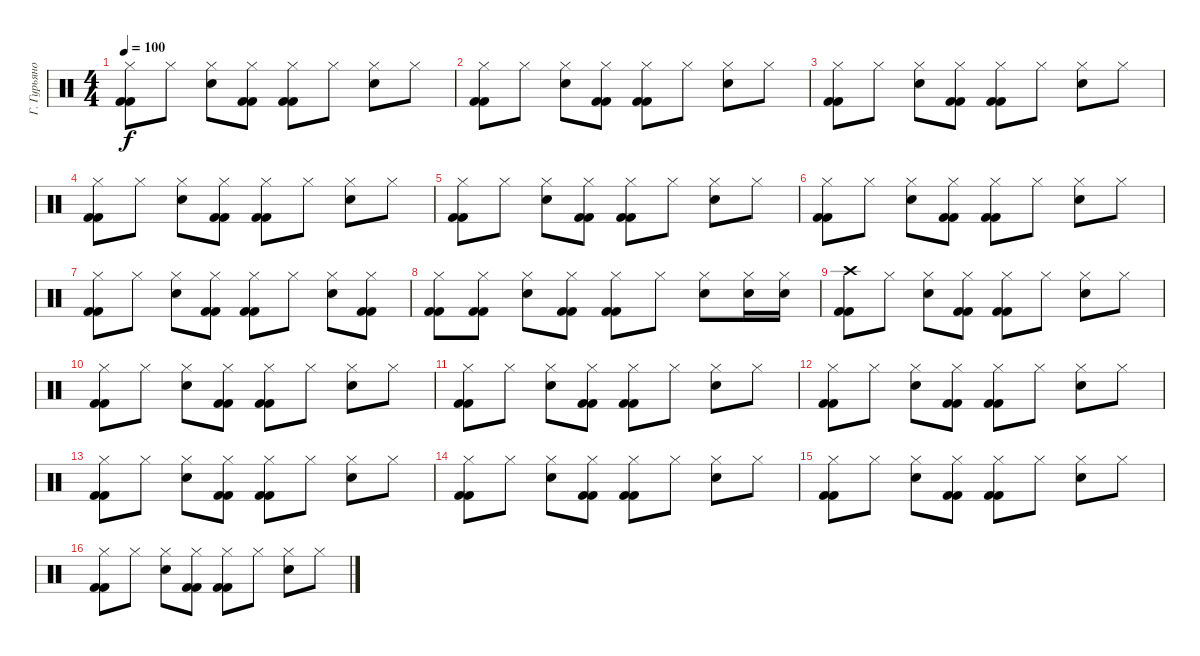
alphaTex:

\track ("Г. Гурьянов" "Г. Гурьяно") {instrument percussion}
\staff {score}
\articulation defaults
\ts (4 4)
\tempo 100
\clef neutral
\ks c
("Hi-Hat (closed)" "Kick (hit) 2" "Kick (hit) 2").8{dy f} "Hi-Hat (closed)".8 ("Hi-Hat (closed)" "Snare (hit) 2").8 ("Hi-Hat (closed)" "Kick (hit) 2" "Kick (hit) 2").8 ("Hi-Hat (closed)" "Kick (hit) 2" "Kick (hit) 2").8 "Hi-Hat (closed)".8 ("Hi-Hat (closed)" "Snare (hit) 2").8 "Hi-Hat (closed)".8 |
("Hi-Hat (closed)" "Kick (hit) 2" "Kick (hit) 2").8 "Hi-Hat (closed)".8 ("Hi-Hat (closed)" "Snare (hit) 2").8 ("Hi-Hat (closed)" "Kick (hit) 2" "Kick (hit) 2").8 ("Hi-Hat (closed)" "Kick (hit) 2" "Kick (hit) 2").8 "Hi-Hat (closed)".8 ("Hi-Hat (closed)" "Snare (hit) 2").8 "Hi-Hat (closed)".8 |
("Hi-Hat (closed)" "Kick (hit) 2" "Kick (hit) 2").8 "Hi-Hat (closed)".8 ("Hi-Hat (closed)" "Snare (hit) 2").8 ("Hi-Hat (closed)" "Kick (hit) 2" "Kick (hit) 2").8 ("Hi-Hat (closed)" "Kick (hit) 2" "Kick (hit) 2").8 "Hi-Hat (closed)".8 ("Hi-Hat (closed)" "Snare (hit) 2").8 "Hi-Hat (closed)".8 |
("Hi-Hat (closed)" "Kick (hit) 2" "Kick (hit) 2").8 "Hi-Hat (closed)".8 ("Hi-Hat (closed)" "Snare (hit) 2").8 ("Hi-Hat (closed)" "Kick (hit) 2" "Kick (hit) 2").8 ("Hi-Hat (closed)" "Kick (hit) 2" "Kick (hit) 2").8 "Hi-Hat (closed)".8 ("Hi-Hat (closed)" "Snare (hit) 2").8 "Hi-Hat (closed)".8 |
("Hi-Hat (closed)" "Kick (hit) 2" "Kick (hit) 2").8 "Hi-Hat (closed)".8 ("Hi-Hat (closed)" "Snare (hit) 2").8 ("Hi-Hat (closed)" "Kick (hit) 2" "Kick (hit) 2").8 ("Hi-Hat (closed)" "Kick (hit) 2" "Kick (hit) 2").8 "Hi-Hat (closed)".8 ("Hi-Hat (closed)" "Snare (hit) 2").8 "Hi-Hat (closed)".8 |
("Hi-Hat (closed)" "Kick (hit) 2" "Kick (hit) 2").8 "Hi-Hat (closed)".8 ("Hi-Hat (closed)" "Snare (hit) 2").8 ("Hi-Hat (closed)" "Kick (hit) 2" "Kick (hit) 2").8 ("Hi-Hat (closed)" "Kick (hit) 2" "Kick (hit) 2").8 "Hi-Hat (closed)".8 ("Hi-Hat (closed)" "Snare (hit) 2").8 "Hi-Hat (closed)".8 |
("Hi-Hat (closed)" "Kick (hit) 2" "Kick (hit) 2").8 "Hi-Hat (closed)".8 ("Hi-Hat (closed)" "Snare (hit) 2").8 ("Hi-Hat (closed)" "Kick (hit) 2" "Kick (hit) 2").8 ("Hi-Hat (closed)" "Kick (hit) 2" "Kick (hit) 2").8 "Hi-Hat (closed)".8 ("Hi-Hat (closed)" "Snare (hit) 2").8 ("Hi-Hat (closed)" "Kick (hit) 2" "Kick (hit) 2").8 |
("Hi-Hat (closed)" "Kick (hit) 2" "Kick (hit) 2").8 ("Hi-Hat (closed)" "Kick (hit) 2" "Kick (hit) 2").8 ("Hi-Hat (closed)" "Snare (hit) 2").8 ("Hi-Hat (closed)" "Kick (hit) 2" "Kick (hit) 2").8 ("Hi-Hat (closed)" "Kick (hit) 2" "Kick (hit) 2").8 "Hi-Hat (closed)".8 ("Hi-Hat (closed)" "Snare (hit) 2").8 ("Hi-Hat (closed)" "Snare (hit) 2").16 ("Hi-Hat (closed)" "Snare (hit) 2").16 |
("Crash high (hit)" "Kick (hit) 2" "Kick (hit) 2").8 "Hi-Hat (closed)".8 ("Hi-Hat (closed)" "Snare (hit) 2").8 ("Hi-Hat (closed)" "Kick (hit) 2" "Kick (hit) 2").8 ("Hi-Hat (closed)" "Kick (hit) 2" "Kick (hit) 2").8 "Hi-Hat (closed)".8 ("Hi-Hat (closed)" "Snare (hit) 2").8 "Hi-Hat (closed)".8 |
("Hi-Hat (closed)" "Kick (hit) 2" "Kick (hit) 2").8 "Hi-Hat (closed)".8 ("Hi-Hat (closed)" "Snare (hit) 2").8 ("Hi-Hat (closed)" "Kick (hit) 2" "Kick (hit) 2").8 ("Hi-Hat (closed)" "Kick (hit) 2" "Kick (hit) 2").8 "Hi-Hat (closed)".8 ("Hi-Hat (closed)" "Snare (hit) 2").8 "Hi-Hat (closed)".8 |
("Hi-Hat (closed)" "Kick (hit) 2" "Kick (hit) 2").8 "Hi-Hat (closed)".8 ("Hi-Hat (closed)" "Snare (hit) 2").8 ("Hi-Hat (closed)" "Kick (hit) 2" "Kick (hit) 2").8 ("Hi-Hat (closed)" "Kick (hit) 2" "Kick (hit) 2").8 "Hi-Hat (closed)".8 ("Hi-Hat (closed)" "Snare (hit) 2").8 "Hi-Hat (closed)".8 |
("Hi-Hat (closed)" "Kick (hit) 2" "Kick (hit) 2").8 "Hi-Hat (closed)".8 ("Hi-Hat (closed)" "Snare (hit) 2").8 ("Hi-Hat (closed)" "Kick (hit) 2" "Kick (hit) 2").8 ("Hi-Hat (closed)" "Kick (hit) 2" "Kick (hit) 2").8 "Hi-Hat (closed)".8 ("Hi-Hat (closed)" "Snare (hit) 2").8 "Hi-Hat (closed)".8 |
("Hi-Hat (closed)" "Kick (hit) 2" "Kick (hit) 2").8 "Hi-Hat (closed)".8 ("Hi-Hat (closed)" "Snare (hit) 2").8 ("Hi-Hat (closed)" "Kick (hit) 2" "Kick (hit) 2").8 ("Hi-Hat (closed)" "Kick (hit) 2" "Kick (hit) 2").8 "Hi-Hat (closed)".8 ("Hi-Hat (closed)" "Snare (hit) 2").8 "Hi-Hat (closed)".8 |
("Hi-Hat (closed)" "Kick (hit) 2" "Kick (hit) 2").8 "Hi-Hat (closed)".8 ("Hi-Hat (closed)" "Snare (hit) 2").8 ("Hi-Hat (closed)" "Kick (hit) 2" "Kick (hit) 2").8 ("Hi-Hat (closed)" "Kick (hit) 2" "Kick (hit) 2").8 "Hi-Hat (closed)".8 ("Hi-Hat (closed)" "Snare (hit) 2").8 "Hi-Hat (closed)".8 |
("Hi-Hat (closed)" "Kick (hit) 2" "Kick (hit) 2").8 "Hi-Hat (closed)".8 ("Hi-Hat (closed)" "Snare (hit) 2").8 ("Hi-Hat (closed)" "Kick (hit) 2" "Kick (hit) 2").8 ("Hi-Hat (closed)" "Kick (hit) 2" "Kick (hit) 2").8 "Hi-Hat (closed)".8 ("Hi-Hat (closed)" "Snare (hit) 2").8 "Hi-Hat (closed)".8 |
("Hi-Hat (closed)" "Kick (hit) 2" "Kick (hit) 2").8 "Hi-Hat (closed)".8 ("Hi-Hat (closed)" "Snare (hit) 2").8 ("Hi-Hat (closed)" "Kick (hit) 2" "Kick (hit) 2").8 ("Hi-Hat (closed)" "Kick (hit) 2" "Kick (hit) 2").8 "Hi-Hat (closed)".8 ("Hi-Hat (closed)" "Snare (hit) 2").8 "Hi-Hat (closed)".8
